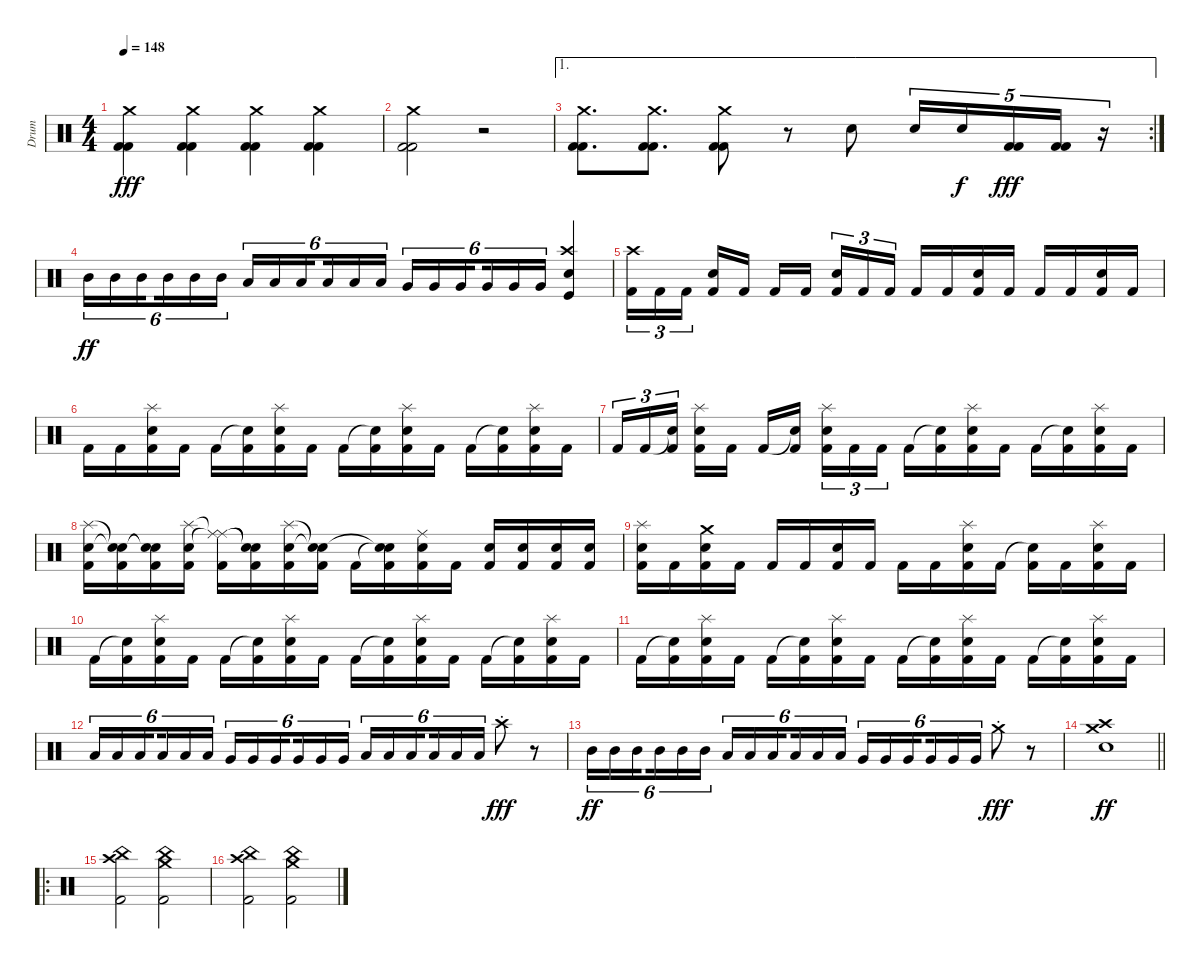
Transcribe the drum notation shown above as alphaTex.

\track ("Drum" "Drum") {instrument percussion}
\staff {score}
\articulation defaults
\ts (4 4)
\tempo 148
\clef neutral
\ks c
("Crash medium (hit)" "Kick (hit) 2" "Kick (hit) 2").4{dy fff} ("Crash medium (hit)" "Kick (hit) 2" "Kick (hit) 2").4 ("Crash medium (hit)" "Kick (hit) 2" "Kick (hit) 2").4 ("Crash medium (hit)" "Kick (hit) 2" "Kick (hit) 2").4 |
("Crash medium (hit)" "Kick (hit) 2" "Kick (hit) 2").2 r.2 |
\ae 1
\rc 2
("Crash medium (hit)" "Kick (hit) 2" "Kick (hit) 2").8{d} ("Crash medium (hit)" "Kick (hit) 2" "Kick (hit) 2").8{d} ("Crash medium (hit)" "Kick (hit) 2" "Kick (hit) 2").8 r.8 "Snare (hit) 2".8 "Snare (hit) 2".16{tu (5 4)} "Snare (hit) 2".16{tu (5 4) dy f} ("Kick (hit) 2" "Kick (hit) 2").16{tu (5 4) dy fff} ("Kick (hit) 2" "Kick (hit) 2").16{tu (5 4)} r.16{tu (5 4)} |
"Mid Tom (hit)".16{tu (6 4) dy ff} "Mid Tom (hit)".16{tu (6 4)} "Mid Tom (hit)".16{tu (6 4) beam splitsecondary} "Mid Tom (hit)".16{tu (6 4)} "Mid Tom (hit)".16{tu (6 4)} "Mid Tom (hit)".16{tu (6 4)} "Low Tom (hit)".16{tu (6 4)} "Low Tom (hit)".16{tu (6 4)} "Low Tom (hit)".16{tu (6 4) beam splitsecondary} "Low Tom (hit)".16{tu (6 4)} "Low Tom (hit)".16{tu (6 4)} "Low Tom (hit)".16{tu (6 4)} "Very Low Tom (hit)".16{tu (6 4)} "Very Low Tom (hit)".16{tu (6 4)} "Very Low Tom (hit)".16{tu (6 4) beam splitsecondary} "Very Low Tom (hit)".16{tu (6 4)} "Very Low Tom (hit)".16{tu (6 4)} "Very Low Tom (hit)".16{tu (6 4)} ("Crash high (hit)" "Snare (hit) 2" "Kick (hit)").4 |
("Crash high (hit)" "Kick (hit) 2").16{tu (3 2)} "Kick (hit) 2".16{tu (3 2)} "Kick (hit) 2".16{tu (3 2) beam splitsecondary} ("Snare (hit) 2" "Kick (hit) 2").16 "Kick (hit) 2".16 "Kick (hit) 2".16 "Kick (hit) 2".16{beam splitsecondary} ("Snare (hit) 2" "Kick (hit) 2").16{tu (3 2)} "Kick (hit) 2".16{tu (3 2)} "Kick (hit) 2".16{tu (3 2)} "Kick (hit) 2".16 "Kick (hit) 2".16 ("Snare (hit) 2" "Kick (hit) 2").16 "Kick (hit) 2".16 "Kick (hit) 2".16 "Kick (hit) 2".16 ("Snare (hit) 2" "Kick (hit) 2").16 "Kick (hit) 2".16 |
"Kick (hit) 2".16 "Kick (hit) 2".16 ("Splash (hit)" "Snare (hit) 2" "Kick (hit) 2").16 "Kick (hit) 2".16 "Kick (hit) 2".16 ("Snare (hit)"{t} "Kick (hit) 2").16 ("Splash (hit)" "Snare (hit) 2" "Kick (hit) 2").16 "Kick (hit) 2".16 "Kick (hit) 2".16 ("Snare (hit)"{t} "Kick (hit) 2").16 ("Splash (hit)" "Snare (hit) 2" "Kick (hit) 2").16 "Kick (hit) 2".16 "Kick (hit) 2".16 ("Snare (hit)"{t} "Kick (hit) 2").16 ("Splash (hit)" "Snare (hit) 2" "Kick (hit) 2").16 "Kick (hit) 2".16 |
"Kick (hit) 2".16{tu (3 2)} "Kick (hit) 2".16{tu (3 2)} ("Snare (hit)"{t} "Kick (hit) 2").16{tu (3 2) beam splitsecondary} ("Splash (hit)" "Snare (hit) 2" "Kick (hit) 2").16 "Kick (hit) 2".16 "Kick (hit) 2".16 ("Snare (hit)"{t} "Kick (hit) 2").16{beam splitsecondary} ("Splash (hit)" "Snare (hit) 2" "Kick (hit) 2").16{tu (3 2)} "Kick (hit) 2".16{tu (3 2)} "Kick (hit) 2".16{tu (3 2)} "Kick (hit) 2".16 ("Snare (hit)"{t} "Kick (hit) 2").16 ("Splash (hit)" "Snare (hit) 2" "Kick (hit) 2").16 "Kick (hit) 2".16 "Kick (hit) 2".16 ("Snare (hit)"{t} "Kick (hit) 2").16 ("Splash (hit)" "Snare (hit) 2" "Kick (hit) 2").16 "Kick (hit) 2".16 |
("Snare (hit) 2" "Splash (hit)" "Kick (hit) 2").16 ("Snare (hit)"{t} "Snare (hit)"{t} "Kick (hit) 2").16 ("Snare (hit)"{t} "Snare (hit)"{t} "Kick (hit) 2").16 ("Snare (hit) 2" "Splash (hit)" "Kick (hit) 2").16 ("Ride (middle)"{t} "Ride (middle)"{t} "Kick (hit) 2").16 ("Snare (hit)"{t} "Snare (hit)"{t} "Kick (hit) 2").16 ("Snare (hit) 2" "Splash (hit)" "Kick (hit) 2").16 ("Snare (hit)"{t} "Snare (hit)"{t} "Kick (hit) 2").16 "Kick (hit) 2".16 ("Snare (hit)"{t} "Snare (hit)"{t} "Kick (hit) 2").16 ("Snare (hit) 2" "Ride (middle)" "Kick (hit) 2").16 "Kick (hit) 2".16 ("Snare (hit) 2" "Kick (hit) 2").16 ("Snare (hit) 2" "Kick (hit) 2").16 ("Snare (hit) 2" "Kick (hit) 2").16 ("Snare (hit) 2" "Kick (hit) 2").16 |
("Splash (hit)" "Snare (hit) 2" "Kick (hit) 2").16 "Kick (hit) 2".16 ("Crash medium (hit)" "Snare (hit) 2" "Kick (hit) 2").16 "Kick (hit) 2".16 "Kick (hit) 2".16 "Kick (hit) 2".16 ("Snare (hit) 2" "Kick (hit) 2").16 "Kick (hit) 2".16 "Kick (hit) 2".16 "Kick (hit) 2".16 ("Splash (hit)" "Snare (hit) 2" "Kick (hit) 2").16 "Kick (hit) 2".16 ("Snare (hit)"{t} "Kick (hit) 2").16 "Kick (hit) 2".16 ("Splash (hit)" "Snare (hit) 2" "Kick (hit) 2").16 "Kick (hit) 2".16 |
"Kick (hit) 2".16 ("Snare (hit)"{t} "Kick (hit) 2").16 ("Splash (hit)" "Snare (hit) 2" "Kick (hit) 2").16 "Kick (hit) 2".16 "Kick (hit) 2".16 ("Snare (hit)"{t} "Kick (hit) 2").16 ("Splash (hit)" "Snare (hit) 2" "Kick (hit) 2").16 "Kick (hit) 2".16 "Kick (hit) 2".16 ("Snare (hit)"{t} "Kick (hit) 2").16 ("Splash (hit)" "Snare (hit) 2" "Kick (hit) 2").16 "Kick (hit) 2".16 "Kick (hit) 2".16 ("Snare (hit)"{t} "Kick (hit) 2").16 ("Splash (hit)" "Snare (hit) 2" "Kick (hit) 2").16 "Kick (hit) 2".16 |
"Kick (hit) 2".16 ("Snare (hit)"{t} "Kick (hit) 2").16 ("Splash (hit)" "Snare (hit) 2" "Kick (hit) 2").16 "Kick (hit) 2".16 "Kick (hit) 2".16 ("Snare (hit)"{t} "Kick (hit) 2").16 ("Splash (hit)" "Snare (hit) 2" "Kick (hit) 2").16 "Kick (hit) 2".16 "Kick (hit) 2".16 ("Snare (hit)"{t} "Kick (hit) 2").16 ("Splash (hit)" "Snare (hit) 2" "Kick (hit) 2").16 "Kick (hit) 2".16 "Kick (hit) 2".16 ("Snare (hit)"{t} "Kick (hit) 2").16 ("Splash (hit)" "Snare (hit) 2" "Kick (hit) 2").16 "Kick (hit) 2".16 |
"Low Tom (hit)".16{tu (6 4)} "Low Tom (hit)".16{tu (6 4)} "Low Tom (hit)".16{tu (6 4) beam splitsecondary} "Low Tom (hit)".16{tu (6 4)} "Low Tom (hit)".16{tu (6 4)} "Low Tom (hit)".16{tu (6 4)} "Very Low Tom (hit)".16{tu (6 4)} "Very Low Tom (hit)".16{tu (6 4)} "Very Low Tom (hit)".16{tu (6 4) beam splitsecondary} "Very Low Tom (hit)".16{tu (6 4)} "Very Low Tom (hit)".16{tu (6 4)} "Very Low Tom (hit)".16{tu (6 4)} "Low Floor Tom (hit)".16{tu (6 4)} "Low Floor Tom (hit)".16{tu (6 4)} "Low Floor Tom (hit)".16{tu (6 4) beam splitsecondary} "Low Floor Tom (hit)".16{tu (6 4)} "Low Floor Tom (hit)".16{tu (6 4)} "Low Floor Tom (hit)".16{tu (6 4)} "Crash high (hit)"{st}.8{dy fff} r.8 |
"Mid Tom (hit)".16{tu (6 4) dy ff} "Mid Tom (hit)".16{tu (6 4)} "Mid Tom (hit)".16{tu (6 4) beam splitsecondary} "Mid Tom (hit)".16{tu (6 4)} "Mid Tom (hit)".16{tu (6 4)} "Mid Tom (hit)".16{tu (6 4)} "Low Tom (hit)".16{tu (6 4)} "Low Tom (hit)".16{tu (6 4)} "Low Tom (hit)".16{tu (6 4) beam splitsecondary} "Low Tom (hit)".16{tu (6 4)} "Low Tom (hit)".16{tu (6 4)} "Low Tom (hit)".16{tu (6 4)} "Very Low Tom (hit)".16{tu (6 4)} "Very Low Tom (hit)".16{tu (6 4)} "Very Low Tom (hit)".16{tu (6 4) beam splitsecondary} "Very Low Tom (hit)".16{tu (6 4)} "Very Low Tom (hit)".16{tu (6 4)} "Very Low Tom (hit)".16{tu (6 4)} "Crash medium (hit)"{st}.8{dy fff} r.8 |
\barLineRight lightlight
("Crash medium (hit)" "Crash high (hit)" "Snare (hit) 2").1{dy ff} |
\ro
\section ("" "")
("Crash high (hit)" "China (hit)" "Kick (hit) 2").2{volume 14} ("Crash medium (hit)" "China (hit)" "Kick (hit) 2").2 |
("Crash high (hit)" "China (hit)" "Kick (hit) 2").2 ("Crash medium (hit)" "China (hit)" "Kick (hit) 2").2
